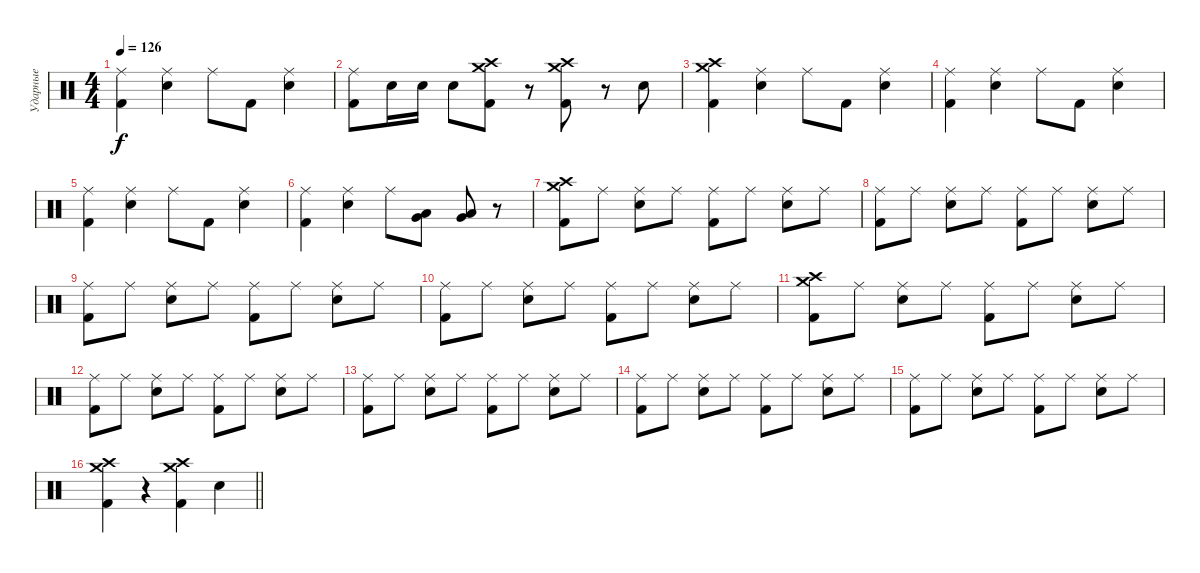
\track ("Ударные" "Ударные") {instrument percussion}
\staff {score}
\articulation defaults
\ts (4 4)
\tempo 126
\clef neutral
\ks c
("Kick (hit) 2" "Ride (middle)").4{dy f} ("Snare (hit) 2" "Ride (middle)").4 "Ride (middle)".8 "Kick (hit) 2".8 ("Snare (hit) 2" "Ride (middle)").4 |
("Kick (hit) 2" "Ride (middle)").8 "Snare (hit) 2".16 "Snare (hit) 2".16 "Snare (hit) 2".8 ("Kick (hit) 2" "Crash high (hit)" "Crash medium (hit)").8 r.8 ("Kick (hit) 2" "Crash high (hit)" "Crash medium (hit)").8 r.8 "Snare (hit) 2".8 |
("Kick (hit) 2" "Crash high (hit)" "Crash medium (hit)").4 ("Snare (hit) 2" "Ride (middle)").4 "Ride (middle)".8 "Kick (hit) 2".8 ("Snare (hit) 2" "Ride (middle)").4 |
("Kick (hit) 2" "Ride (middle)").4 ("Snare (hit) 2" "Ride (middle)").4 "Ride (middle)".8 "Kick (hit) 2".8 ("Snare (hit) 2" "Ride (middle)").4 |
("Kick (hit) 2" "Ride (middle)").4 ("Snare (hit) 2" "Ride (middle)").4 "Ride (middle)".8 "Kick (hit) 2".8 ("Snare (hit) 2" "Ride (middle)").4 |
("Kick (hit) 2" "Ride (middle)").4 ("Snare (hit) 2" "Ride (middle)").4 "Ride (middle)".8 ("Low Tom (hit)" "Very Low Tom (hit)").8 ("Low Tom (hit)" "Very Low Tom (hit)").8 r.8 |
("Kick (hit) 2" "Crash high (hit)" "Crash medium (hit)").8 "Ride (middle)".8 ("Snare (hit) 2" "Ride (middle)").8 "Ride (middle)".8 ("Kick (hit) 2" "Ride (middle)").8 "Ride (middle)".8 ("Snare (hit) 2" "Ride (middle)").8 "Ride (middle)".8 |
("Kick (hit) 2" "Ride (middle)").8 "Ride (middle)".8 ("Snare (hit) 2" "Ride (middle)").8 "Ride (middle)".8 ("Kick (hit) 2" "Ride (middle)").8 "Ride (middle)".8 ("Snare (hit) 2" "Ride (middle)").8 "Ride (middle)".8 |
("Kick (hit) 2" "Ride (middle)").8 "Ride (middle)".8 ("Snare (hit) 2" "Ride (middle)").8 "Ride (middle)".8 ("Kick (hit) 2" "Ride (middle)").8 "Ride (middle)".8 ("Snare (hit) 2" "Ride (middle)").8 "Ride (middle)".8 |
("Kick (hit) 2" "Ride (middle)").8 "Ride (middle)".8 ("Snare (hit) 2" "Ride (middle)").8 "Ride (middle)".8 ("Kick (hit) 2" "Ride (middle)").8 "Ride (middle)".8 ("Snare (hit) 2" "Ride (middle)").8 "Ride (middle)".8 |
("Kick (hit) 2" "Crash high (hit)" "Crash medium (hit)").8 "Ride (middle)".8 ("Snare (hit) 2" "Ride (middle)").8 "Ride (middle)".8 ("Kick (hit) 2" "Ride (middle)").8 "Ride (middle)".8 ("Snare (hit) 2" "Ride (middle)").8 "Ride (middle)".8 |
("Kick (hit) 2" "Ride (middle)").8 "Ride (middle)".8 ("Snare (hit) 2" "Ride (middle)").8 "Ride (middle)".8 ("Kick (hit) 2" "Ride (middle)").8 "Ride (middle)".8 ("Snare (hit) 2" "Ride (middle)").8 "Ride (middle)".8 |
("Kick (hit) 2" "Ride (middle)").8 "Ride (middle)".8 ("Snare (hit) 2" "Ride (middle)").8 "Ride (middle)".8 ("Kick (hit) 2" "Ride (middle)").8 "Ride (middle)".8 ("Snare (hit) 2" "Ride (middle)").8 "Ride (middle)".8 |
("Kick (hit) 2" "Ride (middle)").8 "Ride (middle)".8 ("Snare (hit) 2" "Ride (middle)").8 "Ride (middle)".8 ("Kick (hit) 2" "Ride (middle)").8 "Ride (middle)".8 ("Snare (hit) 2" "Ride (middle)").8 "Ride (middle)".8 |
("Kick (hit) 2" "Ride (middle)").8 "Ride (middle)".8 ("Snare (hit) 2" "Ride (middle)").8 "Ride (middle)".8 ("Kick (hit) 2" "Ride (middle)").8 "Ride (middle)".8 ("Snare (hit) 2" "Ride (middle)").8 "Ride (middle)".8 |
\barLineRight lightlight
("Kick (hit) 2" "Crash high (hit)" "Crash medium (hit)").4 r.4 ("Kick (hit) 2" "Crash medium (hit)" "Crash high (hit)").4 "Snare (hit) 2".4
